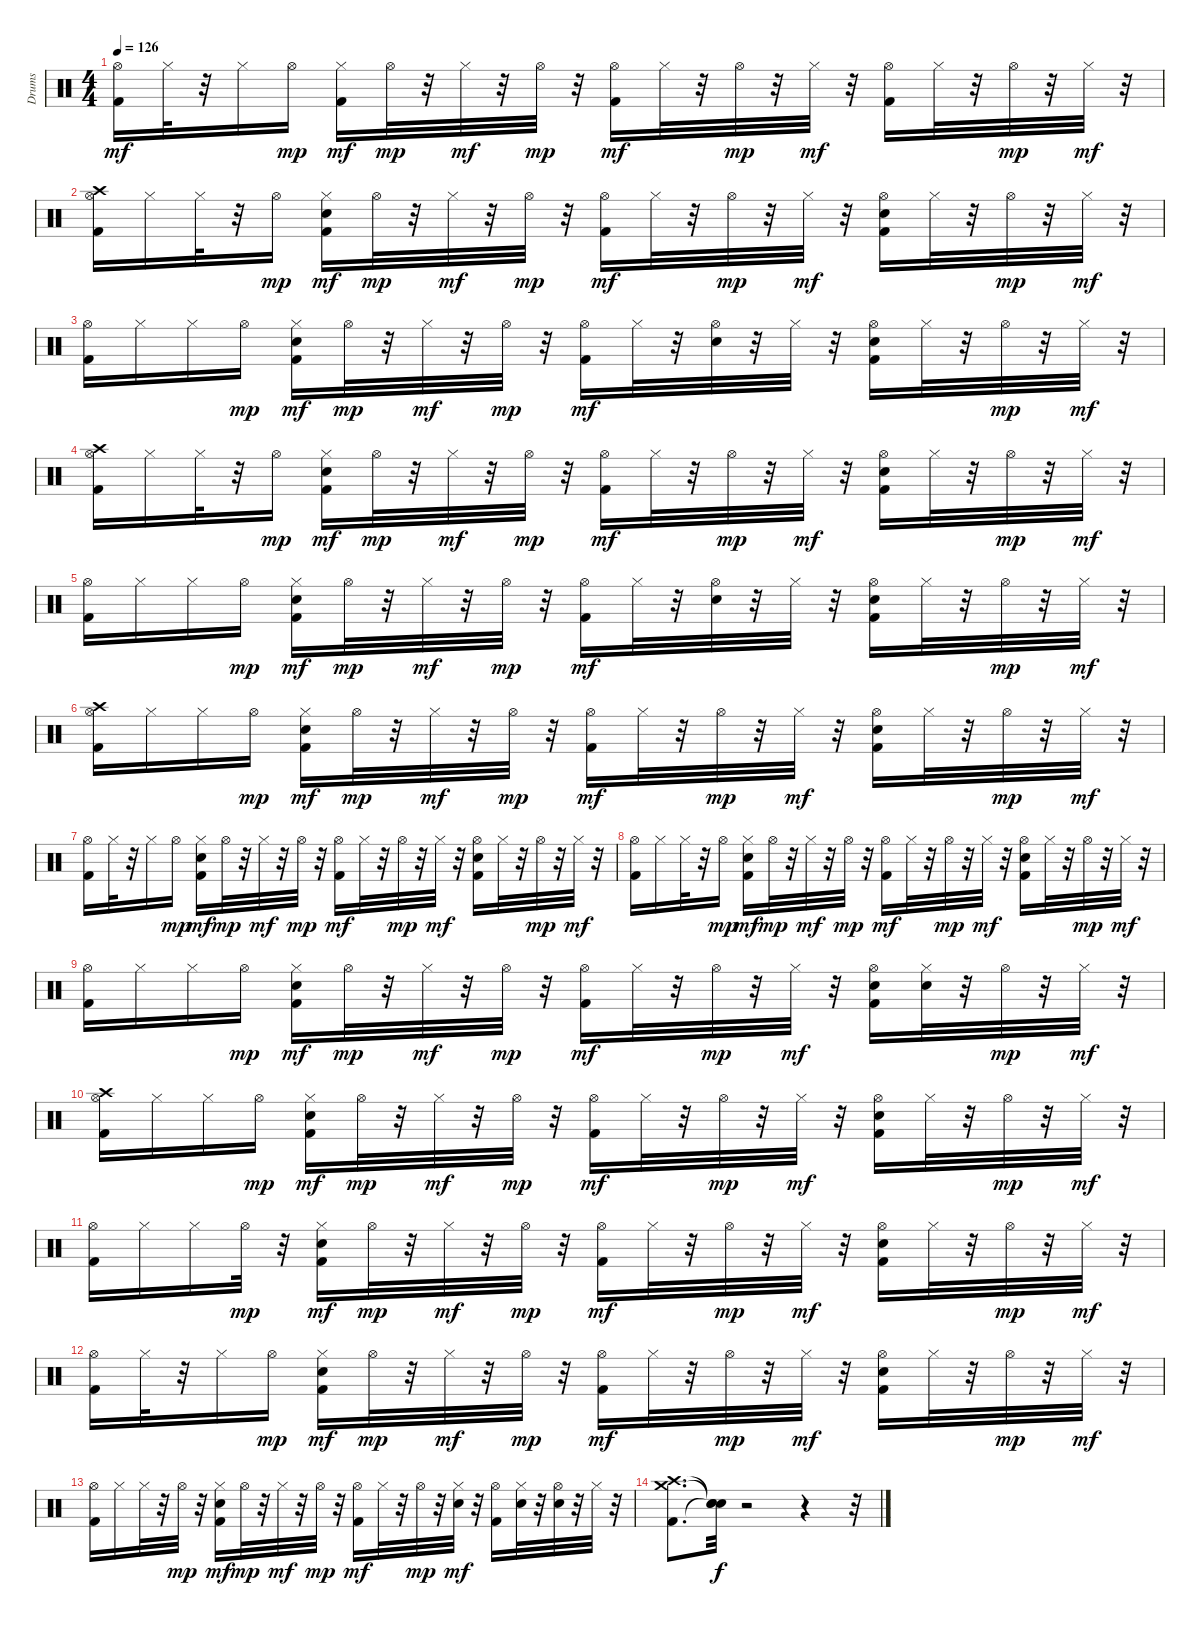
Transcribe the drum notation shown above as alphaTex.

\track ("Drums" "Drums") {instrument percussion}
\staff {score}
\articulation defaults
\ts (4 4)
\tempo 126
\clef neutral
\ks c
("Hi-Hat (open)" "Kick (hit) 2").16{dy mf} "Hi-Hat (closed)".32 r.32 "Hi-Hat (closed)".16 "Hi-Hat (open)".16{dy mp} ("Hi-Hat (closed)" "Kick (hit) 2").16{dy mf} "Hi-Hat (open)".32{dy mp} r.32 "Hi-Hat (closed)".32{dy mf} r.32 "Hi-Hat (open)".32{dy mp} r.32 ("Hi-Hat (open)" "Kick (hit) 2").16{dy mf} "Hi-Hat (closed)".32 r.32 "Hi-Hat (open)".32{dy mp} r.32 "Hi-Hat (closed)".32{dy mf} r.32 ("Hi-Hat (open)" "Kick (hit) 2").16 "Hi-Hat (closed)".32 r.32 "Hi-Hat (open)".32{dy mp} r.32 "Hi-Hat (closed)".32{dy mf} r.32 |
("Hi-Hat (open)" "Crash high (hit)" "Kick (hit) 2").16 "Hi-Hat (closed)".16 "Hi-Hat (closed)".32 r.32 "Hi-Hat (open)".16{dy mp} ("Hi-Hat (closed)" "Hand Clap (hit)" "Kick (hit) 2").16{dy mf} "Hi-Hat (open)".32{dy mp} r.32 "Hi-Hat (closed)".32{dy mf} r.32 "Hi-Hat (open)".32{dy mp} r.32 ("Hi-Hat (open)" "Kick (hit) 2").16{dy mf} "Hi-Hat (closed)".32 r.32 "Hi-Hat (open)".32{dy mp} r.32 "Hi-Hat (closed)".32{dy mf} r.32 ("Hi-Hat (open)" "Hand Clap (hit)" "Kick (hit) 2").16 "Hi-Hat (closed)".32 r.32 "Hi-Hat (open)".32{dy mp} r.32 "Hi-Hat (closed)".32{dy mf} r.32 |
("Hi-Hat (open)" "Kick (hit) 2").16 "Hi-Hat (closed)".16 "Hi-Hat (closed)".16 "Hi-Hat (open)".16{dy mp} ("Hi-Hat (closed)" "Hand Clap (hit)" "Kick (hit) 2").16{dy mf} "Hi-Hat (open)".32{dy mp} r.32 "Hi-Hat (closed)".32{dy mf} r.32 "Hi-Hat (open)".32{dy mp} r.32 ("Hi-Hat (open)" "Kick (hit) 2").16{dy mf} "Hi-Hat (closed)".32 r.32 ("Hi-Hat (open)" "Hand Clap (hit)").32 r.32 "Hi-Hat (closed)".32 r.32 ("Hi-Hat (open)" "Hand Clap (hit)" "Kick (hit) 2").16 "Hi-Hat (closed)".32 r.32 "Hi-Hat (open)".32{dy mp} r.32 "Hi-Hat (closed)".32{dy mf} r.32 |
("Hi-Hat (open)" "Crash high (hit)" "Kick (hit) 2").16 "Hi-Hat (closed)".16 "Hi-Hat (closed)".32 r.32 "Hi-Hat (open)".16{dy mp} ("Hi-Hat (closed)" "Hand Clap (hit)" "Kick (hit) 2").16{dy mf} "Hi-Hat (open)".32{dy mp} r.32 "Hi-Hat (closed)".32{dy mf} r.32 "Hi-Hat (open)".32{dy mp} r.32 ("Hi-Hat (open)" "Kick (hit) 2").16{dy mf} "Hi-Hat (closed)".32 r.32 "Hi-Hat (open)".32{dy mp} r.32 "Hi-Hat (closed)".32{dy mf} r.32 ("Hi-Hat (open)" "Hand Clap (hit)" "Kick (hit) 2").16 "Hi-Hat (closed)".32 r.32 "Hi-Hat (open)".32{dy mp} r.32 "Hi-Hat (closed)".32{dy mf} r.32 |
("Hi-Hat (open)" "Kick (hit) 2").16 "Hi-Hat (closed)".16 "Hi-Hat (closed)".16 "Hi-Hat (open)".16{dy mp} ("Hi-Hat (closed)" "Hand Clap (hit)" "Kick (hit) 2").16{dy mf} "Hi-Hat (open)".32{dy mp} r.32 "Hi-Hat (closed)".32{dy mf} r.32 "Hi-Hat (open)".32{dy mp} r.32 ("Hi-Hat (open)" "Kick (hit) 2").16{dy mf} "Hi-Hat (closed)".32 r.32 ("Hi-Hat (open)" "Hand Clap (hit)").32 r.32 "Hi-Hat (closed)".32 r.32 ("Hi-Hat (open)" "Hand Clap (hit)" "Kick (hit) 2").16 "Hi-Hat (closed)".32 r.32 "Hi-Hat (open)".32{dy mp} r.32 "Hi-Hat (closed)".32{dy mf} r.32 |
("Hi-Hat (open)" "Crash high (hit)" "Kick (hit) 2").16 "Hi-Hat (closed)".16 "Hi-Hat (closed)".16 "Hi-Hat (open)".16{dy mp} ("Hi-Hat (closed)" "Kick (hit) 2" "Electric Snare (hit)").16{dy mf} "Hi-Hat (open)".32{dy mp} r.32 "Hi-Hat (closed)".32{dy mf} r.32 "Hi-Hat (open)".32{dy mp} r.32 ("Hi-Hat (open)" "Kick (hit) 2").16{dy mf} "Hi-Hat (closed)".32 r.32 "Hi-Hat (open)".32{dy mp} r.32 "Hi-Hat (closed)".32{dy mf} r.32 ("Hi-Hat (open)" "Kick (hit) 2" "Electric Snare (hit)").16 "Hi-Hat (closed)".32 r.32 "Hi-Hat (open)".32{dy mp} r.32 "Hi-Hat (closed)".32{dy mf} r.32 |
("Hi-Hat (open)" "Kick (hit) 2").16 "Hi-Hat (closed)".32 r.32 "Hi-Hat (closed)".16 "Hi-Hat (open)".16{dy mp} ("Hi-Hat (closed)" "Kick (hit) 2" "Electric Snare (hit)").16{dy mf} "Hi-Hat (open)".32{dy mp} r.32 "Hi-Hat (closed)".32{dy mf} r.32 "Hi-Hat (open)".32{dy mp} r.32 ("Hi-Hat (open)" "Kick (hit) 2").16{dy mf} "Hi-Hat (closed)".32 r.32 "Hi-Hat (open)".32{dy mp} r.32 "Hi-Hat (closed)".32{dy mf} r.32 ("Hi-Hat (open)" "Kick (hit) 2" "Electric Snare (hit)").16 "Hi-Hat (closed)".32 r.32 "Hi-Hat (open)".32{dy mp} r.32 "Hi-Hat (closed)".32{dy mf} r.32 |
("Hi-Hat (open)" "Kick (hit) 2").16 "Hi-Hat (closed)".16 "Hi-Hat (closed)".32 r.32 "Hi-Hat (open)".16{dy mp} ("Hi-Hat (closed)" "Kick (hit) 2" "Electric Snare (hit)").16{dy mf} "Hi-Hat (open)".32{dy mp} r.32 "Hi-Hat (closed)".32{dy mf} r.32 "Hi-Hat (open)".32{dy mp} r.32 ("Hi-Hat (open)" "Kick (hit) 2").16{dy mf} "Hi-Hat (closed)".32 r.32 "Hi-Hat (open)".32{dy mp} r.32 "Hi-Hat (closed)".32{dy mf} r.32 ("Hi-Hat (open)" "Kick (hit) 2" "Electric Snare (hit)").16 "Hi-Hat (closed)".32 r.32 "Hi-Hat (open)".32{dy mp} r.32 "Hi-Hat (closed)".32{dy mf} r.32 |
("Hi-Hat (open)" "Kick (hit) 2").16 "Hi-Hat (closed)".16 "Hi-Hat (closed)".16 "Hi-Hat (open)".16{dy mp} ("Hi-Hat (closed)" "Kick (hit) 2" "Electric Snare (hit)").16{dy mf} "Hi-Hat (open)".32{dy mp} r.32 "Hi-Hat (closed)".32{dy mf} r.32 "Hi-Hat (open)".32{dy mp} r.32 ("Hi-Hat (open)" "Kick (hit) 2").16{dy mf} "Hi-Hat (closed)".32 r.32 "Hi-Hat (open)".32{dy mp} r.32 "Hi-Hat (closed)".32{dy mf} r.32 ("Hi-Hat (open)" "Kick (hit) 2" "Snare (hit) 2").16 ("Hi-Hat (closed)" "Snare (hit) 2").32 r.32 "Hi-Hat (open)".32{dy mp} r.32 "Hi-Hat (closed)".32{dy mf} r.32 |
("Hi-Hat (open)" "Crash high (hit)" "Kick (hit) 2").16 "Hi-Hat (closed)".16 "Hi-Hat (closed)".16 "Hi-Hat (open)".16{dy mp} ("Hi-Hat (closed)" "Kick (hit) 2" "Electric Snare (hit)").16{dy mf} "Hi-Hat (open)".32{dy mp} r.32 "Hi-Hat (closed)".32{dy mf} r.32 "Hi-Hat (open)".32{dy mp} r.32 ("Hi-Hat (open)" "Kick (hit) 2").16{dy mf} "Hi-Hat (closed)".32 r.32 "Hi-Hat (open)".32{dy mp} r.32 "Hi-Hat (closed)".32{dy mf} r.32 ("Hi-Hat (open)" "Kick (hit) 2" "Electric Snare (hit)").16 "Hi-Hat (closed)".32 r.32 "Hi-Hat (open)".32{dy mp} r.32 "Hi-Hat (closed)".32{dy mf} r.32 |
("Hi-Hat (open)" "Kick (hit) 2").16 "Hi-Hat (closed)".16 "Hi-Hat (closed)".16 "Hi-Hat (open)".32{dy mp} r.32 ("Hi-Hat (closed)" "Kick (hit) 2" "Electric Snare (hit)").16{dy mf} "Hi-Hat (open)".32{dy mp} r.32 "Hi-Hat (closed)".32{dy mf} r.32 "Hi-Hat (open)".32{dy mp} r.32 ("Hi-Hat (open)" "Kick (hit) 2").16{dy mf} "Hi-Hat (closed)".32 r.32 "Hi-Hat (open)".32{dy mp} r.32 "Hi-Hat (closed)".32{dy mf} r.32 ("Hi-Hat (open)" "Kick (hit) 2" "Electric Snare (hit)").16 "Hi-Hat (closed)".32 r.32 "Hi-Hat (open)".32{dy mp} r.32 "Hi-Hat (closed)".32{dy mf} r.32 |
("Hi-Hat (open)" "Kick (hit) 2").16 "Hi-Hat (closed)".32 r.32 "Hi-Hat (closed)".16 "Hi-Hat (open)".16{dy mp} ("Hi-Hat (closed)" "Kick (hit) 2" "Electric Snare (hit)").16{dy mf} "Hi-Hat (open)".32{dy mp} r.32 "Hi-Hat (closed)".32{dy mf} r.32 "Hi-Hat (open)".32{dy mp} r.32 ("Hi-Hat (open)" "Kick (hit) 2").16{dy mf} "Hi-Hat (closed)".32 r.32 "Hi-Hat (open)".32{dy mp} r.32 "Hi-Hat (closed)".32{dy mf} r.32 ("Hi-Hat (open)" "Kick (hit) 2" "Electric Snare (hit)").16 "Hi-Hat (closed)".32 r.32 "Hi-Hat (open)".32{dy mp} r.32 "Hi-Hat (closed)".32{dy mf} r.32 |
("Hi-Hat (open)" "Kick (hit) 2").16 "Hi-Hat (closed)".16 "Hi-Hat (closed)".32 r.32 "Hi-Hat (open)".32{dy mp} r.32 ("Hi-Hat (closed)" "Kick (hit) 2" "Electric Snare (hit)").16{dy mf} "Hi-Hat (open)".32{dy mp} r.32 "Hi-Hat (closed)".32{dy mf} r.32 "Hi-Hat (open)".32{dy mp} r.32 ("Hi-Hat (open)" "Kick (hit) 2").16{dy mf} "Hi-Hat (closed)".32 r.32 "Hi-Hat (open)".32{dy mp} r.32 ("Hi-Hat (closed)" "Snare (hit) 2").32{dy mf} r.32 ("Hi-Hat (open)" "Kick (hit) 2").16 ("Hi-Hat (closed)" "Snare (hit) 2").32 r.32 ("Hi-Hat (open)" "Snare (hit) 2").32 r.32 "Hi-Hat (closed)".32 r.32 |
("Crash medium (hit)" "Crash high (hit)" "Kick (hit) 2").8{d} ("Snare (hit)"{t} "Snare (hit)"{t} "Snare (hit)"{t}).32{dy f} r.2 r.4 r.32
